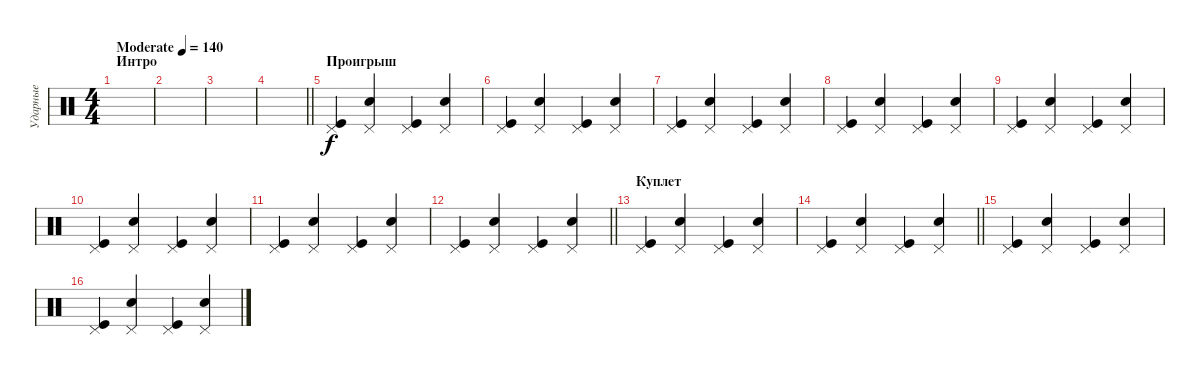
\track ("Ударные" "Ударные") {instrument percussion}
\staff {score}
\articulation defaults
\ts (4 4)
\section ("" "Интро")
\tempo (140 "Moderate")
\clef neutral
\ks c
|
|
|
\barLineRight lightlight
|
\section ("" "Проигрыш")
("Kick (hit)" "Pedal Hi-Hat (hit)").4 ("Electric Snare (hit)" "Pedal Hi-Hat (hit)").4 ("Kick (hit)" "Pedal Hi-Hat (hit)").4 ("Electric Snare (hit)" "Pedal Hi-Hat (hit)").4 |
("Kick (hit)" "Pedal Hi-Hat (hit)").4 ("Electric Snare (hit)" "Pedal Hi-Hat (hit)").4 ("Kick (hit)" "Pedal Hi-Hat (hit)").4 ("Electric Snare (hit)" "Pedal Hi-Hat (hit)").4 |
("Kick (hit)" "Pedal Hi-Hat (hit)").4 ("Electric Snare (hit)" "Pedal Hi-Hat (hit)").4 ("Kick (hit)" "Pedal Hi-Hat (hit)").4 ("Electric Snare (hit)" "Pedal Hi-Hat (hit)").4 |
("Kick (hit)" "Pedal Hi-Hat (hit)").4 ("Electric Snare (hit)" "Pedal Hi-Hat (hit)").4 ("Kick (hit)" "Pedal Hi-Hat (hit)").4 ("Electric Snare (hit)" "Pedal Hi-Hat (hit)").4 |
("Kick (hit)" "Pedal Hi-Hat (hit)").4 ("Electric Snare (hit)" "Pedal Hi-Hat (hit)").4 ("Kick (hit)" "Pedal Hi-Hat (hit)").4 ("Electric Snare (hit)" "Pedal Hi-Hat (hit)").4 |
("Kick (hit)" "Pedal Hi-Hat (hit)").4 ("Electric Snare (hit)" "Pedal Hi-Hat (hit)").4 ("Kick (hit)" "Pedal Hi-Hat (hit)").4 ("Electric Snare (hit)" "Pedal Hi-Hat (hit)").4 |
("Kick (hit)" "Pedal Hi-Hat (hit)").4 ("Electric Snare (hit)" "Pedal Hi-Hat (hit)").4 ("Kick (hit)" "Pedal Hi-Hat (hit)").4 ("Electric Snare (hit)" "Pedal Hi-Hat (hit)").4 |
\barLineRight lightlight
("Kick (hit)" "Pedal Hi-Hat (hit)").4 ("Electric Snare (hit)" "Pedal Hi-Hat (hit)").4 ("Kick (hit)" "Pedal Hi-Hat (hit)").4 ("Electric Snare (hit)" "Pedal Hi-Hat (hit)").4 |
\section ("" "Куплет")
("Kick (hit)" "Pedal Hi-Hat (hit)").4 ("Electric Snare (hit)" "Pedal Hi-Hat (hit)").4 ("Kick (hit)" "Pedal Hi-Hat (hit)").4 ("Electric Snare (hit)" "Pedal Hi-Hat (hit)").4 |
\barLineRight lightlight
("Kick (hit)" "Pedal Hi-Hat (hit)").4 ("Electric Snare (hit)" "Pedal Hi-Hat (hit)").4 ("Kick (hit)" "Pedal Hi-Hat (hit)").4 ("Electric Snare (hit)" "Pedal Hi-Hat (hit)").4 |
("Kick (hit)" "Pedal Hi-Hat (hit)").4 ("Electric Snare (hit)" "Pedal Hi-Hat (hit)").4 ("Kick (hit)" "Pedal Hi-Hat (hit)").4 ("Electric Snare (hit)" "Pedal Hi-Hat (hit)").4 |
("Kick (hit)" "Pedal Hi-Hat (hit)").4 ("Electric Snare (hit)" "Pedal Hi-Hat (hit)").4 ("Kick (hit)" "Pedal Hi-Hat (hit)").4 ("Electric Snare (hit)" "Pedal Hi-Hat (hit)").4
